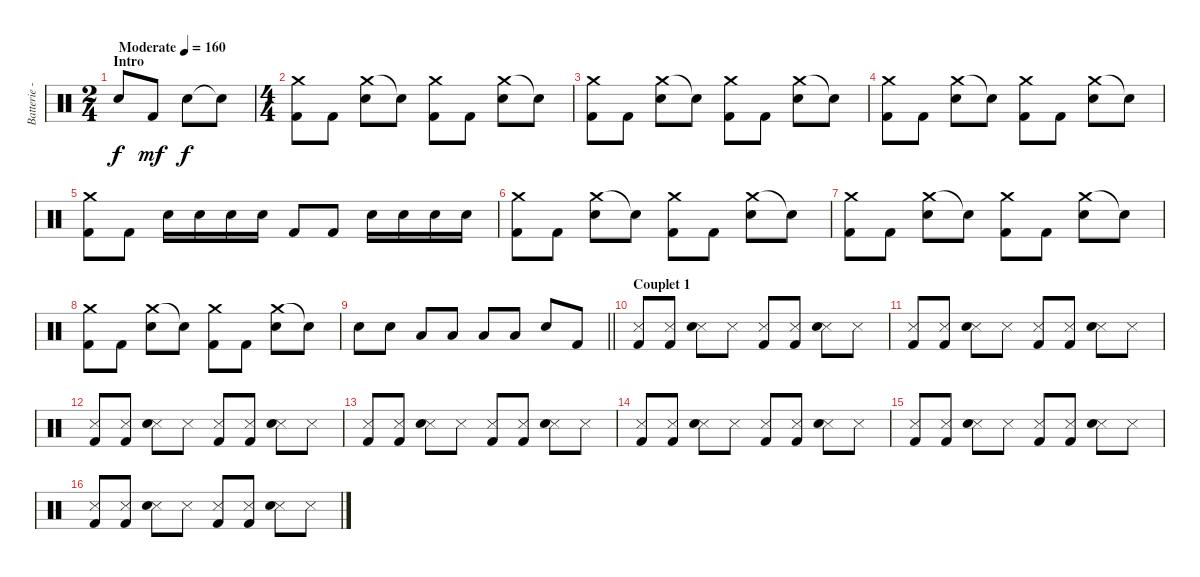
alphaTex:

\track ("Batterie - Mikko" "Batterie -") {instrument percussion}
\staff {score}
\articulation defaults
\ts (2 4)
\section ("" "Intro")
\tempo (160 "Moderate")
\clef neutral
\ks c "Snare (hit) 2".8{dy f} "Kick (hit) 2".8{dy mf} "Snare (hit) 2".8{dy f} "Snare (hit)"{t}.8
|
\ts (4 4)
("Crash medium (hit)" "Kick (hit) 2").8 "Kick (hit) 2".8 ("Crash medium (hit)" "Snare (hit) 2").8 "Snare (hit)"{t}.8 ("Crash medium (hit)" "Kick (hit) 2").8 "Kick (hit) 2".8 ("Crash medium (hit)" "Snare (hit) 2").8 "Snare (hit)"{t}.8 |
("Crash medium (hit)" "Kick (hit) 2").8 "Kick (hit) 2".8 ("Crash medium (hit)" "Snare (hit) 2").8 "Snare (hit)"{t}.8 ("Crash medium (hit)" "Kick (hit) 2").8 "Kick (hit) 2".8 ("Crash medium (hit)" "Snare (hit) 2").8 "Snare (hit)"{t}.8 |
("Crash medium (hit)" "Kick (hit) 2").8 "Kick (hit) 2".8 ("Crash medium (hit)" "Snare (hit) 2").8 "Snare (hit)"{t}.8 ("Crash medium (hit)" "Kick (hit) 2").8 "Kick (hit) 2".8 ("Crash medium (hit)" "Snare (hit) 2").8 "Snare (hit)"{t}.8 |
("Crash medium (hit)" "Kick (hit) 2").8 "Kick (hit) 2".8 "Snare (hit) 2".16 "Snare (hit) 2".16 "Snare (hit) 2".16 "Snare (hit) 2".16 "Kick (hit) 2".8 "Kick (hit) 2".8 "Snare (hit) 2".16 "Snare (hit) 2".16 "Snare (hit) 2".16 "Snare (hit) 2".16 |
("Crash medium (hit)" "Kick (hit) 2").8 "Kick (hit) 2".8 ("Crash medium (hit)" "Snare (hit) 2").8 "Snare (hit)"{t}.8 ("Crash medium (hit)" "Kick (hit) 2").8 "Kick (hit) 2".8 ("Crash medium (hit)" "Snare (hit) 2").8 "Snare (hit)"{t}.8 |
("Crash medium (hit)" "Kick (hit) 2").8 "Kick (hit) 2".8 ("Crash medium (hit)" "Snare (hit) 2").8 "Snare (hit)"{t}.8 ("Crash medium (hit)" "Kick (hit) 2").8 "Kick (hit) 2".8 ("Crash medium (hit)" "Snare (hit) 2").8 "Snare (hit)"{t}.8 |
("Crash medium (hit)" "Kick (hit) 2").8 "Kick (hit) 2".8 ("Crash medium (hit)" "Snare (hit) 2").8 "Snare (hit)"{t}.8 ("Crash medium (hit)" "Kick (hit) 2").8 "Kick (hit) 2".8 ("Crash medium (hit)" "Snare (hit) 2").8 "Snare (hit)"{t}.8 |
\barLineRight lightlight "Snare (hit) 2".8 "Snare (hit) 2".8 "Low Tom (hit)".8 "Low Tom (hit)".8 "Low Floor Tom (hit)".8 "Low Floor Tom (hit)".8 "Snare (hit) 2".8 "Kick (hit) 2".8
|
\section ("" "Couplet 1")
("Snare (side stick) 3" "Kick (hit) 2").8 ("Snare (side stick) 3" "Kick (hit) 2").8 ("Snare (side stick) 3" "Snare (hit) 2").8 "Snare (side stick) 3".8 ("Snare (side stick) 3" "Kick (hit) 2").8 ("Snare (side stick) 3" "Kick (hit) 2").8 ("Snare (side stick) 3" "Snare (hit) 2").8 "Snare (side stick) 3".8 |
("Snare (side stick) 3" "Kick (hit) 2").8 ("Snare (side stick) 3" "Kick (hit) 2").8 ("Snare (side stick) 3" "Snare (hit) 2").8 "Snare (side stick) 3".8 ("Snare (side stick) 3" "Kick (hit) 2").8 ("Snare (side stick) 3" "Kick (hit) 2").8 ("Snare (side stick) 3" "Snare (hit) 2").8 "Snare (side stick) 3".8 |
("Snare (side stick) 3" "Kick (hit) 2").8 ("Snare (side stick) 3" "Kick (hit) 2").8 ("Snare (side stick) 3" "Snare (hit) 2").8 "Snare (side stick) 3".8 ("Snare (side stick) 3" "Kick (hit) 2").8 ("Snare (side stick) 3" "Kick (hit) 2").8 ("Snare (side stick) 3" "Snare (hit) 2").8 "Snare (side stick) 3".8 |
("Snare (side stick) 3" "Kick (hit) 2").8 ("Snare (side stick) 3" "Kick (hit) 2").8 ("Snare (side stick) 3" "Snare (hit) 2").8 "Snare (side stick) 3".8 ("Snare (side stick) 3" "Kick (hit) 2").8 ("Snare (side stick) 3" "Kick (hit) 2").8 ("Snare (side stick) 3" "Snare (hit) 2").8 "Snare (side stick) 3".8 |
("Snare (side stick) 3" "Kick (hit) 2").8 ("Snare (side stick) 3" "Kick (hit) 2").8 ("Snare (side stick) 3" "Snare (hit) 2").8 "Snare (side stick) 3".8 ("Snare (side stick) 3" "Kick (hit) 2").8 ("Snare (side stick) 3" "Kick (hit) 2").8 ("Snare (side stick) 3" "Snare (hit) 2").8 "Snare (side stick) 3".8 |
("Snare (side stick) 3" "Kick (hit) 2").8 ("Snare (side stick) 3" "Kick (hit) 2").8 ("Snare (side stick) 3" "Snare (hit) 2").8 "Snare (side stick) 3".8 ("Snare (side stick) 3" "Kick (hit) 2").8 ("Snare (side stick) 3" "Kick (hit) 2").8 ("Snare (side stick) 3" "Snare (hit) 2").8 "Snare (side stick) 3".8 |
("Snare (side stick) 3" "Kick (hit) 2").8 ("Snare (side stick) 3" "Kick (hit) 2").8 ("Snare (side stick) 3" "Snare (hit) 2").8 "Snare (side stick) 3".8 ("Snare (side stick) 3" "Kick (hit) 2").8 ("Snare (side stick) 3" "Kick (hit) 2").8 ("Snare (side stick) 3" "Snare (hit) 2").8 "Snare (side stick) 3".8
